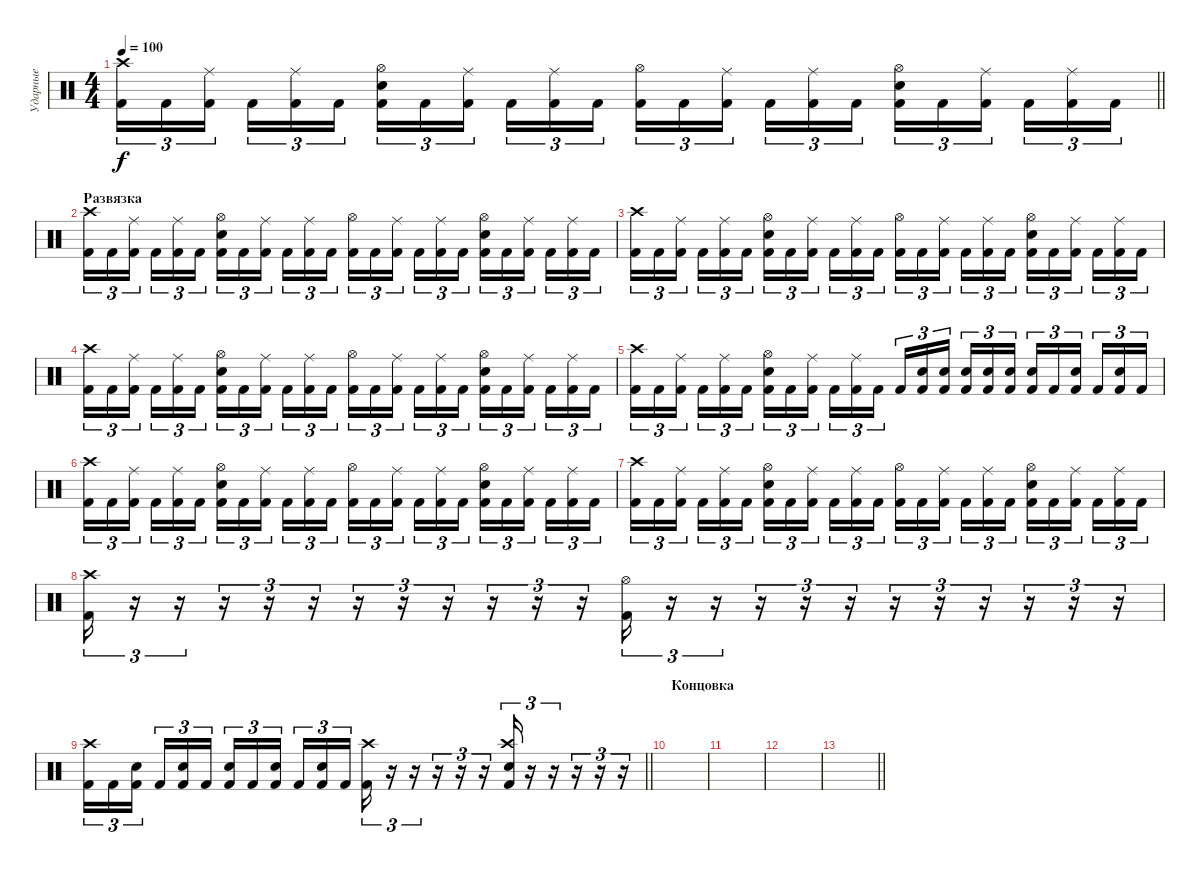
\track ("Ударные" "Ударные") {instrument percussion}
\staff {score}
\articulation defaults
\ts (4 4)
\tempo 100
\clef neutral
\barLineRight lightlight
\ks c
("Kick (hit) 2" "Crash high (hit)").16{tu (3 2) dy f} "Kick (hit) 2".16{tu (3 2)} ("Kick (hit) 2" "Ride (middle)").16{tu (3 2) beam splitsecondary} "Kick (hit) 2".16{tu (3 2)} ("Kick (hit) 2" "Ride (middle)").16{tu (3 2)} "Kick (hit) 2".16{tu (3 2)} ("Kick (hit) 2" "Snare (hit) 2" "Hi-Hat (open)").16{tu (3 2)} "Kick (hit) 2".16{tu (3 2)} ("Kick (hit) 2" "Ride (middle)").16{tu (3 2) beam splitsecondary} "Kick (hit) 2".16{tu (3 2)} ("Kick (hit) 2" "Ride (middle)").16{tu (3 2)} "Kick (hit) 2".16{tu (3 2)} ("Kick (hit) 2" "Hi-Hat (open)").16{tu (3 2)} "Kick (hit) 2".16{tu (3 2)} ("Kick (hit) 2" "Ride (middle)").16{tu (3 2) beam splitsecondary} "Kick (hit) 2".16{tu (3 2)} ("Kick (hit) 2" "Ride (middle)").16{tu (3 2)} "Kick (hit) 2".16{tu (3 2)} ("Kick (hit) 2" "Snare (hit) 2" "Hi-Hat (open)").16{tu (3 2)} "Kick (hit) 2".16{tu (3 2)} ("Kick (hit) 2" "Ride (middle)").16{tu (3 2) beam splitsecondary} "Kick (hit) 2".16{tu (3 2)} ("Kick (hit) 2" "Ride (middle)").16{tu (3 2)} "Kick (hit) 2".16{tu (3 2)} |
\section ("" "Развязка")
("Kick (hit) 2" "Crash high (hit)").16{tu (3 2)} "Kick (hit) 2".16{tu (3 2)} ("Kick (hit) 2" "Ride (middle)").16{tu (3 2) beam splitsecondary} "Kick (hit) 2".16{tu (3 2)} ("Kick (hit) 2" "Ride (middle)").16{tu (3 2)} "Kick (hit) 2".16{tu (3 2)} ("Kick (hit) 2" "Snare (hit) 2" "Hi-Hat (open)").16{tu (3 2)} "Kick (hit) 2".16{tu (3 2)} ("Kick (hit) 2" "Ride (middle)").16{tu (3 2) beam splitsecondary} "Kick (hit) 2".16{tu (3 2)} ("Kick (hit) 2" "Ride (middle)").16{tu (3 2)} "Kick (hit) 2".16{tu (3 2)} ("Kick (hit) 2" "Hi-Hat (open)").16{tu (3 2)} "Kick (hit) 2".16{tu (3 2)} ("Kick (hit) 2" "Ride (middle)").16{tu (3 2) beam splitsecondary} "Kick (hit) 2".16{tu (3 2)} ("Kick (hit) 2" "Ride (middle)").16{tu (3 2)} "Kick (hit) 2".16{tu (3 2)} ("Kick (hit) 2" "Snare (hit) 2" "Hi-Hat (open)").16{tu (3 2)} "Kick (hit) 2".16{tu (3 2)} ("Kick (hit) 2" "Ride (middle)").16{tu (3 2) beam splitsecondary} "Kick (hit) 2".16{tu (3 2)} ("Kick (hit) 2" "Ride (middle)").16{tu (3 2)} "Kick (hit) 2".16{tu (3 2)} |
("Kick (hit) 2" "Crash high (hit)").16{tu (3 2)} "Kick (hit) 2".16{tu (3 2)} ("Kick (hit) 2" "Ride (middle)").16{tu (3 2) beam splitsecondary} "Kick (hit) 2".16{tu (3 2)} ("Kick (hit) 2" "Ride (middle)").16{tu (3 2)} "Kick (hit) 2".16{tu (3 2)} ("Kick (hit) 2" "Snare (hit) 2" "Hi-Hat (open)").16{tu (3 2)} "Kick (hit) 2".16{tu (3 2)} ("Kick (hit) 2" "Ride (middle)").16{tu (3 2) beam splitsecondary} "Kick (hit) 2".16{tu (3 2)} ("Kick (hit) 2" "Ride (middle)").16{tu (3 2)} "Kick (hit) 2".16{tu (3 2)} ("Kick (hit) 2" "Hi-Hat (open)").16{tu (3 2)} "Kick (hit) 2".16{tu (3 2)} ("Kick (hit) 2" "Ride (middle)").16{tu (3 2) beam splitsecondary} "Kick (hit) 2".16{tu (3 2)} ("Kick (hit) 2" "Ride (middle)").16{tu (3 2)} "Kick (hit) 2".16{tu (3 2)} ("Kick (hit) 2" "Snare (hit) 2" "Hi-Hat (open)").16{tu (3 2)} "Kick (hit) 2".16{tu (3 2)} ("Kick (hit) 2" "Ride (middle)").16{tu (3 2) beam splitsecondary} "Kick (hit) 2".16{tu (3 2)} ("Kick (hit) 2" "Ride (middle)").16{tu (3 2)} "Kick (hit) 2".16{tu (3 2)} |
("Kick (hit) 2" "Crash high (hit)").16{tu (3 2)} "Kick (hit) 2".16{tu (3 2)} ("Kick (hit) 2" "Ride (middle)").16{tu (3 2) beam splitsecondary} "Kick (hit) 2".16{tu (3 2)} ("Kick (hit) 2" "Ride (middle)").16{tu (3 2)} "Kick (hit) 2".16{tu (3 2)} ("Kick (hit) 2" "Snare (hit) 2" "Hi-Hat (open)").16{tu (3 2)} "Kick (hit) 2".16{tu (3 2)} ("Kick (hit) 2" "Ride (middle)").16{tu (3 2) beam splitsecondary} "Kick (hit) 2".16{tu (3 2)} ("Kick (hit) 2" "Ride (middle)").16{tu (3 2)} "Kick (hit) 2".16{tu (3 2)} ("Kick (hit) 2" "Hi-Hat (open)").16{tu (3 2)} "Kick (hit) 2".16{tu (3 2)} ("Kick (hit) 2" "Ride (middle)").16{tu (3 2) beam splitsecondary} "Kick (hit) 2".16{tu (3 2)} ("Kick (hit) 2" "Ride (middle)").16{tu (3 2)} "Kick (hit) 2".16{tu (3 2)} ("Kick (hit) 2" "Snare (hit) 2" "Hi-Hat (open)").16{tu (3 2)} "Kick (hit) 2".16{tu (3 2)} ("Kick (hit) 2" "Ride (middle)").16{tu (3 2) beam splitsecondary} "Kick (hit) 2".16{tu (3 2)} ("Kick (hit) 2" "Ride (middle)").16{tu (3 2)} "Kick (hit) 2".16{tu (3 2)} |
("Kick (hit) 2" "Crash high (hit)").16{tu (3 2)} "Kick (hit) 2".16{tu (3 2)} ("Kick (hit) 2" "Ride (middle)").16{tu (3 2) beam splitsecondary} "Kick (hit) 2".16{tu (3 2)} ("Kick (hit) 2" "Ride (middle)").16{tu (3 2)} "Kick (hit) 2".16{tu (3 2)} ("Kick (hit) 2" "Snare (hit) 2" "Hi-Hat (open)").16{tu (3 2)} "Kick (hit) 2".16{tu (3 2)} ("Kick (hit) 2" "Ride (middle)").16{tu (3 2) beam splitsecondary} "Kick (hit) 2".16{tu (3 2)} ("Kick (hit) 2" "Ride (middle)").16{tu (3 2)} "Kick (hit) 2".16{tu (3 2)} "Kick (hit) 2".16{tu (3 2)} ("Kick (hit) 2" "Snare (hit) 2").16{tu (3 2)} ("Kick (hit) 2" "Snare (hit) 2").16{tu (3 2) beam splitsecondary} ("Kick (hit) 2" "Snare (hit) 2").16{tu (3 2)} ("Kick (hit) 2" "Snare (hit) 2").16{tu (3 2)} ("Kick (hit) 2" "Snare (hit) 2").16{tu (3 2)} ("Kick (hit) 2" "Snare (hit) 2").16{tu (3 2)} "Kick (hit) 2".16{tu (3 2)} ("Kick (hit) 2" "Snare (hit) 2").16{tu (3 2) beam splitsecondary} "Kick (hit) 2".16{tu (3 2)} ("Kick (hit) 2" "Snare (hit) 2").16{tu (3 2)} "Kick (hit) 2".16{tu (3 2)} |
("Kick (hit) 2" "Crash high (hit)").16{tu (3 2)} "Kick (hit) 2".16{tu (3 2)} ("Kick (hit) 2" "Ride (middle)").16{tu (3 2) beam splitsecondary} "Kick (hit) 2".16{tu (3 2)} ("Kick (hit) 2" "Ride (middle)").16{tu (3 2)} "Kick (hit) 2".16{tu (3 2)} ("Kick (hit) 2" "Snare (hit) 2" "Hi-Hat (open)").16{tu (3 2)} "Kick (hit) 2".16{tu (3 2)} ("Kick (hit) 2" "Ride (middle)").16{tu (3 2) beam splitsecondary} "Kick (hit) 2".16{tu (3 2)} ("Kick (hit) 2" "Ride (middle)").16{tu (3 2)} "Kick (hit) 2".16{tu (3 2)} ("Kick (hit) 2" "Hi-Hat (open)").16{tu (3 2)} "Kick (hit) 2".16{tu (3 2)} ("Kick (hit) 2" "Ride (middle)").16{tu (3 2) beam splitsecondary} "Kick (hit) 2".16{tu (3 2)} ("Kick (hit) 2" "Ride (middle)").16{tu (3 2)} "Kick (hit) 2".16{tu (3 2)} ("Kick (hit) 2" "Snare (hit) 2" "Hi-Hat (open)").16{tu (3 2)} "Kick (hit) 2".16{tu (3 2)} ("Kick (hit) 2" "Ride (middle)").16{tu (3 2) beam splitsecondary} "Kick (hit) 2".16{tu (3 2)} ("Kick (hit) 2" "Ride (middle)").16{tu (3 2)} "Kick (hit) 2".16{tu (3 2)} |
("Kick (hit) 2" "Crash high (hit)").16{tu (3 2)} "Kick (hit) 2".16{tu (3 2)} ("Kick (hit) 2" "Ride (middle)").16{tu (3 2) beam splitsecondary} "Kick (hit) 2".16{tu (3 2)} ("Kick (hit) 2" "Ride (middle)").16{tu (3 2)} "Kick (hit) 2".16{tu (3 2)} ("Kick (hit) 2" "Snare (hit) 2" "Hi-Hat (open)").16{tu (3 2)} "Kick (hit) 2".16{tu (3 2)} ("Kick (hit) 2" "Ride (middle)").16{tu (3 2) beam splitsecondary} "Kick (hit) 2".16{tu (3 2)} ("Kick (hit) 2" "Ride (middle)").16{tu (3 2)} "Kick (hit) 2".16{tu (3 2)} ("Kick (hit) 2" "Hi-Hat (open)").16{tu (3 2)} "Kick (hit) 2".16{tu (3 2)} ("Kick (hit) 2" "Ride (middle)").16{tu (3 2) beam splitsecondary} "Kick (hit) 2".16{tu (3 2)} ("Kick (hit) 2" "Ride (middle)").16{tu (3 2)} "Kick (hit) 2".16{tu (3 2)} ("Kick (hit) 2" "Snare (hit) 2" "Hi-Hat (open)").16{tu (3 2)} "Kick (hit) 2".16{tu (3 2)} ("Kick (hit) 2" "Ride (middle)").16{tu (3 2) beam splitsecondary} "Kick (hit) 2".16{tu (3 2)} ("Kick (hit) 2" "Ride (middle)").16{tu (3 2)} "Kick (hit) 2".16{tu (3 2)} |
("Kick (hit) 2" "Crash high (hit)").16{tu (3 2)} r.16{tu (3 2)} r.16{tu (3 2)} r.16{tu (3 2)} r.16{tu (3 2)} r.16{tu (3 2)} r.16{tu (3 2)} r.16{tu (3 2)} r.16{tu (3 2)} r.16{tu (3 2)} r.16{tu (3 2)} r.16{tu (3 2)} ("Kick (hit) 2" "Hi-Hat (open)").16{tu (3 2)} r.16{tu (3 2)} r.16{tu (3 2)} r.16{tu (3 2)} r.16{tu (3 2)} r.16{tu (3 2)} r.16{tu (3 2)} r.16{tu (3 2)} r.16{tu (3 2)} r.16{tu (3 2)} r.16{tu (3 2)} r.16{tu (3 2)} |
\barLineRight lightlight
("Kick (hit) 2" "Crash high (hit)").16{tu (3 2)} "Kick (hit) 2".16{tu (3 2)} ("Kick (hit) 2" "Snare (hit) 2").16{tu (3 2) beam splitsecondary} "Kick (hit) 2".16{tu (3 2)} ("Kick (hit) 2" "Snare (hit) 2").16{tu (3 2)} "Kick (hit) 2".16{tu (3 2)} ("Kick (hit) 2" "Snare (hit) 2").16{tu (3 2)} "Kick (hit) 2".16{tu (3 2)} ("Kick (hit) 2" "Snare (hit) 2").16{tu (3 2) beam splitsecondary} "Kick (hit) 2".16{tu (3 2)} ("Kick (hit) 2" "Snare (hit) 2").16{tu (3 2)} "Kick (hit) 2".16{tu (3 2)} ("Kick (hit) 2" "Crash high (hit)").16{tu (3 2)} r.16{tu (3 2)} r.16{tu (3 2)} r.16{tu (3 2)} r.16{tu (3 2)} r.16{tu (3 2)} ("Kick (hit) 2" "Snare (hit) 2" "Crash high (hit)").16{tu (3 2)} r.16{tu (3 2)} r.16{tu (3 2)} r.16{tu (3 2)} r.16{tu (3 2)} r.16{tu (3 2)} |
\section ("" "Концовка")
|
|
|
\barLineRight lightlight
